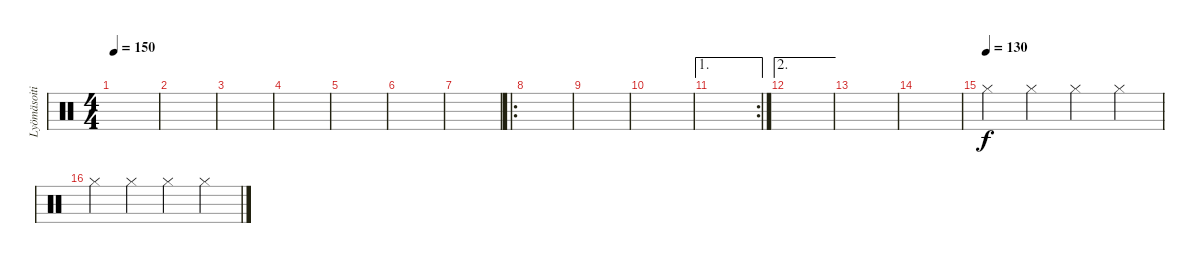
\track ("Lyömäsoitin" "Lyömäsoiti") {instrument percussion}
\staff {score}
\articulation defaults
\ts (4 4)
\tempo 150
\clef neutral
\ks c
|
|
|
|
|
|
|
\ro
|
|
|
\ae 1
\rc 2
|
\ae 2
|
|
|
\tempo (130)
"Hi-Hat (closed)".4 "Hi-Hat (closed)".4 "Hi-Hat (closed)".4 "Hi-Hat (closed)".4 |
"Hi-Hat (closed)".4 "Hi-Hat (closed)".4 "Hi-Hat (closed)".4 "Hi-Hat (closed)".4
